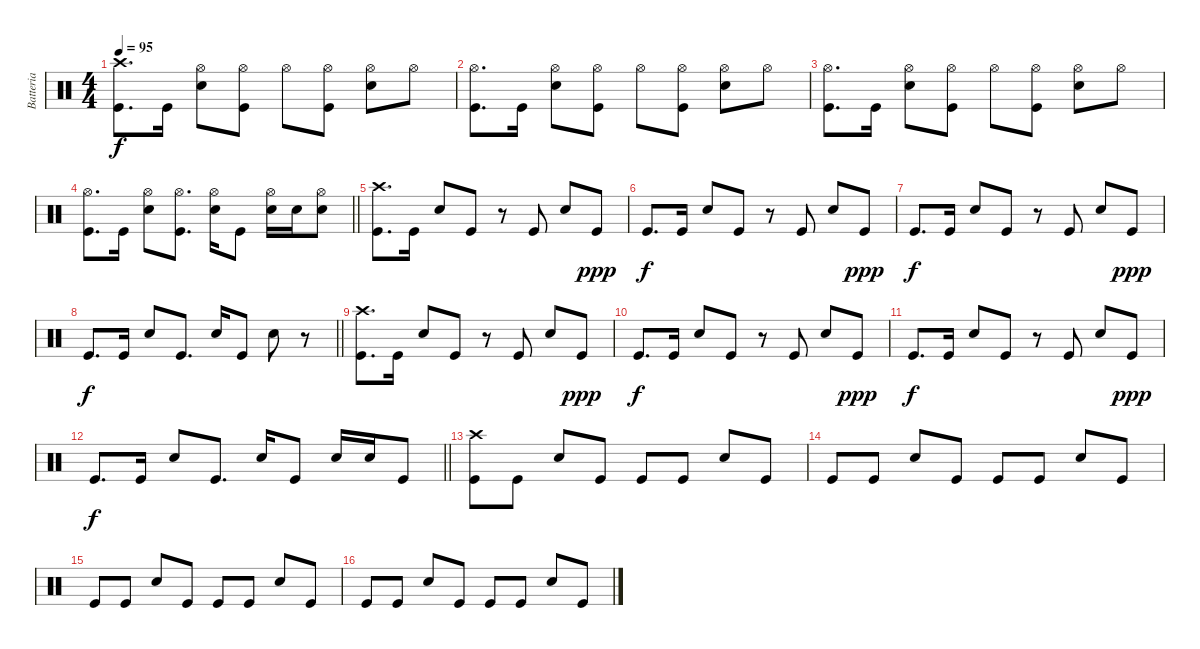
\track ("Batteria" "Batteria") {instrument percussion}
\staff {score}
\articulation defaults
\ts (4 4)
\tempo 95
\clef neutral
\ks c
("Kick (hit)" "Crash high (hit)").8{d dy f} "Kick (hit)".16 ("Snare (hit) 2" "Hi-Hat (open)").8 ("Kick (hit)" "Hi-Hat (open)").8 "Hi-Hat (open)".8 ("Kick (hit)" "Hi-Hat (open)").8 ("Snare (hit) 2" "Hi-Hat (open)").8 "Hi-Hat (open)".8 |
("Kick (hit)" "Hi-Hat (open)").8{d} "Kick (hit)".16 ("Snare (hit) 2" "Hi-Hat (open)").8 ("Kick (hit)" "Hi-Hat (open)").8 "Hi-Hat (open)".8 ("Kick (hit)" "Hi-Hat (open)").8 ("Snare (hit) 2" "Hi-Hat (open)").8 "Hi-Hat (open)".8 |
("Kick (hit)" "Hi-Hat (open)").8{d} "Kick (hit)".16 ("Snare (hit) 2" "Hi-Hat (open)").8 ("Kick (hit)" "Hi-Hat (open)").8 "Hi-Hat (open)".8 ("Kick (hit)" "Hi-Hat (open)").8 ("Snare (hit) 2" "Hi-Hat (open)").8 "Hi-Hat (open)".8 |
\barLineRight lightlight
("Kick (hit)" "Hi-Hat (open)").8{d} "Kick (hit)".16 ("Snare (hit) 2" "Hi-Hat (open)").8 ("Kick (hit)" "Hi-Hat (open)").8{d} ("Snare (hit) 2" "Hi-Hat (open)").16 "Kick (hit)".8 ("Snare (hit) 2" "Hi-Hat (open)").16 "Snare (hit) 2".16 ("Snare (hit) 2" "Hi-Hat (open)").8 |
("Kick (hit)" "Crash high (hit)").8{d} "Kick (hit)".16 "Snare (hit) 2".8 "Kick (hit)".8 r.8 "Kick (hit)".8 "Snare (hit) 2".8 "Kick (hit)".8{dy ppp} |
"Kick (hit)".8{d dy f} "Kick (hit)".16 "Snare (hit) 2".8 "Kick (hit)".8 r.8 "Kick (hit)".8 "Snare (hit) 2".8 "Kick (hit)".8{dy ppp} |
"Kick (hit)".8{d dy f} "Kick (hit)".16 "Snare (hit) 2".8 "Kick (hit)".8 r.8 "Kick (hit)".8 "Snare (hit) 2".8 "Kick (hit)".8{dy ppp} |
\barLineRight lightlight "Kick (hit)".8{d dy f} "Kick (hit)".16 "Snare (hit) 2".8 "Kick (hit)".8{d} "Snare (hit) 2".16 "Kick (hit)".8 "Snare (hit) 2".8
r.8 |
("Kick (hit)" "Crash high (hit)").8{d} "Kick (hit)".16 "Snare (hit) 2".8 "Kick (hit)".8 r.8 "Kick (hit)".8 "Snare (hit) 2".8 "Kick (hit)".8{dy ppp} |
"Kick (hit)".8{d dy f} "Kick (hit)".16 "Snare (hit) 2".8 "Kick (hit)".8 r.8 "Kick (hit)".8 "Snare (hit) 2".8 "Kick (hit)".8{dy ppp} |
"Kick (hit)".8{d dy f} "Kick (hit)".16 "Snare (hit) 2".8 "Kick (hit)".8 r.8 "Kick (hit)".8 "Snare (hit) 2".8 "Kick (hit)".8{dy ppp} |
\barLineRight lightlight "Kick (hit)".8{d dy f} "Kick (hit)".16 "Snare (hit) 2".8 "Kick (hit)".8{d} "Snare (hit) 2".16 "Kick (hit)".8 "Snare (hit) 2".16 "Snare (hit) 2".16 "Kick (hit)".8
|
("Kick (hit)" "Crash high (hit)").8 "Kick (hit)".8 "Snare (hit) 2".8 "Kick (hit)".8 "Kick (hit)".8 "Kick (hit)".8 "Snare (hit) 2".8 "Kick (hit)".8 |
"Kick (hit)".8 "Kick (hit)".8 "Snare (hit) 2".8 "Kick (hit)".8 "Kick (hit)".8 "Kick (hit)".8 "Snare (hit) 2".8 "Kick (hit)".8 |
"Kick (hit)".8 "Kick (hit)".8 "Snare (hit) 2".8 "Kick (hit)".8 "Kick (hit)".8 "Kick (hit)".8 "Snare (hit) 2".8 "Kick (hit)".8 |
"Kick (hit)".8 "Kick (hit)".8 "Snare (hit) 2".8 "Kick (hit)".8 "Kick (hit)".8 "Kick (hit)".8 "Snare (hit) 2".8 "Kick (hit)".8
